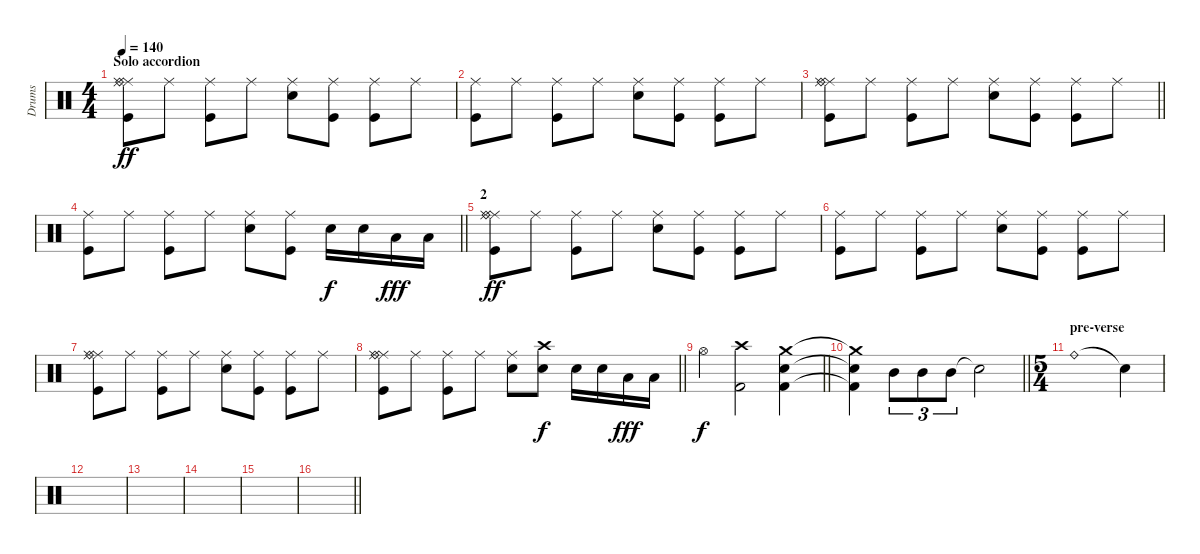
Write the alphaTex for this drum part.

\track ("Drums" "Drums") {instrument percussion}
\staff {score}
\articulation defaults
\ts (4 4)
\section ("" "Solo accordion")
\tempo 140
\clef neutral
\ks c
("Kick (hit)" "Ride (middle)" "Ride (middle)" "Ride (bell)").8{dy ff} "Ride (middle)".8 ("Kick (hit)" "Ride (middle)").8 "Ride (middle)".8 ("Snare (hit) 2" "Ride (middle)").8 ("Kick (hit)" "Ride (middle)").8 ("Kick (hit)" "Ride (middle)").8 "Ride (middle)".8 |
("Kick (hit)" "Ride (middle)").8 "Ride (middle)".8 ("Kick (hit)" "Ride (middle)").8 "Ride (middle)".8 ("Snare (hit) 2" "Ride (middle)").8 ("Kick (hit)" "Ride (middle)").8 ("Kick (hit)" "Ride (middle)").8 "Ride (middle)".8 |
\barLineRight lightlight
("Kick (hit)" "Ride (middle)" "Ride (middle)" "Ride (bell)").8 "Ride (middle)".8 ("Kick (hit)" "Ride (middle)").8 "Ride (middle)".8 ("Snare (hit) 2" "Ride (middle)").8 ("Kick (hit)" "Ride (middle)").8 ("Kick (hit)" "Ride (middle)").8 "Ride (middle)".8 |
\barLineRight lightlight
("Kick (hit)" "Ride (middle)").8 "Ride (middle)".8 ("Kick (hit)" "Ride (middle)").8 "Ride (middle)".8 ("Snare (hit) 2" "Ride (middle)").8 ("Kick (hit)" "Ride (middle)").8 "Snare (hit) 2".16{dy f} "Snare (hit) 2".16 "Low Floor Tom (hit)".16{dy fff} "Low Floor Tom (hit)".16 |
\section ("" "2")
("Kick (hit)" "Ride (middle)" "Ride (middle)" "Ride (bell)").8{dy ff} "Ride (middle)".8 ("Kick (hit)" "Ride (middle)").8 "Ride (middle)".8 ("Snare (hit) 2" "Ride (middle)").8 ("Kick (hit)" "Ride (middle)").8 ("Kick (hit)" "Ride (middle)").8 "Ride (middle)".8 |
("Kick (hit)" "Ride (middle)").8 "Ride (middle)".8 ("Kick (hit)" "Ride (middle)").8 "Ride (middle)".8 ("Snare (hit) 2" "Ride (middle)").8 ("Kick (hit)" "Ride (middle)").8 ("Kick (hit)" "Ride (middle)").8 "Ride (middle)".8 |
("Kick (hit)" "Ride (middle)" "Ride (middle)" "Ride (bell)").8 "Ride (middle)".8 ("Kick (hit)" "Ride (middle)").8 "Ride (middle)".8 ("Snare (hit) 2" "Ride (middle)").8 ("Kick (hit)" "Ride (middle)").8 ("Kick (hit)" "Ride (middle)").8 "Ride (middle)".8 |
\barLineRight lightlight
("Kick (hit)" "Ride (middle)" "Ride (middle)" "Ride (bell)").8 "Ride (middle)".8 ("Kick (hit)" "Ride (middle)").8 "Ride (middle)".8 ("Snare (hit) 2" "Ride (middle)").8 ("Snare (hit) 2" "Crash high (hit)").8{dy f} "Snare (hit) 2".16 "Snare (hit) 2".16 "Low Floor Tom (hit)".16{dy fff} "Low Floor Tom (hit)".16 |
\barLineRight lightlight "Hi-Hat (open)".4{dy f}
("Crash high (hit)" "Kick (hit) 2").2 ("Crash medium (hit)" "Snare (hit) 2" "Kick (hit) 2").4 |
\barLineRight lightlight
("Crash medium (hit)"{t} "Snare (hit) 2"{t} "Kick (hit) 2"{t}).4 "Mid Tom (hit)".8{tu (3 2)} "Mid Tom (hit)".8{tu (3 2)} "Mid Tom (hit)".8{tu (3 2)} "Snare (hit)"{t}.2 |
\ts (5 4)
\section ("" "pre-verse")
"Ride (bell)".1 "Snare (hit)"{t}.4 |
|
|
|
|
\barLineRight lightlight
